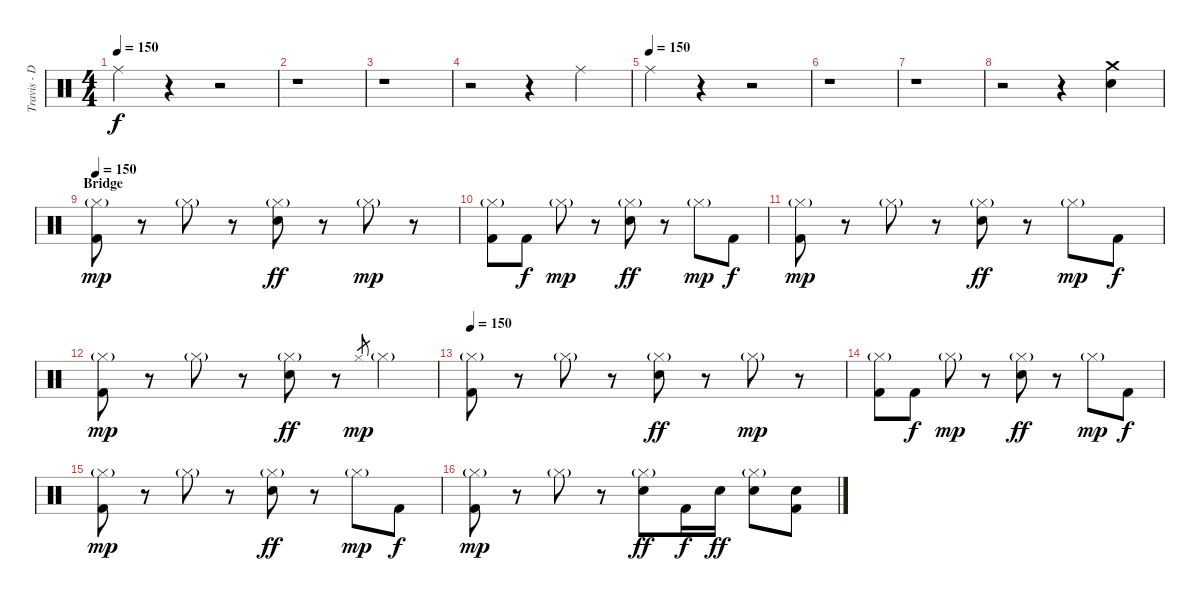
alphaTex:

\track ("Travis - Drums" "Travis - D") {instrument percussion}
\staff {score}
\articulation defaults
\ts (4 4)
\tempo 150
\clef neutral
\ks c "Ride (middle)".4{dy f}
r.4 r.2 |
r.1 |
r.1 |
r.2 r.4 "Ride (middle)".4 |
\tempo (150)
"Ride (middle)".4 r.4 r.2 |
r.1 |
r.1 |
r.2 r.4 ("Crash medium (hit)" "Electric Snare (hit)").4 |
\section ("" "Bridge")
\tempo 150
("Hi-Hat (closed)"{g} "Kick (hit) 2").8{dy mp} r.8 "Hi-Hat (closed)"{g}.8 r.8 ("Hi-Hat (closed)"{g} "Electric Snare (hit)").8{dy ff} r.8 "Hi-Hat (closed)"{g}.8{dy mp} r.8 |
("Hi-Hat (closed)"{g} "Kick (hit) 2").8 "Kick (hit) 2".8{dy f} "Hi-Hat (closed)"{g}.8{dy mp} r.8 ("Hi-Hat (closed)"{g} "Electric Snare (hit)").8{dy ff} r.8 "Hi-Hat (closed)"{g}.8{dy mp} "Kick (hit) 2".8{dy f} |
("Hi-Hat (closed)"{g} "Kick (hit) 2").8{dy mp} r.8 "Hi-Hat (closed)"{g}.8 r.8 ("Hi-Hat (closed)"{g} "Electric Snare (hit)").8{dy ff} r.8 "Hi-Hat (closed)"{g}.8{dy mp} "Kick (hit) 2".8{dy f} |
("Hi-Hat (closed)"{g} "Kick (hit) 2").8{dy mp} r.8 "Hi-Hat (closed)"{g}.8 r.8 ("Hi-Hat (closed)"{g} "Electric Snare (hit)").8{dy ff} r.8 "Hi-Hat (closed)".8{gr dy mp} "Hi-Hat (closed)"{g}.4 |
\tempo 150
("Hi-Hat (closed)"{g} "Kick (hit) 2").8 r.8 "Hi-Hat (closed)"{g}.8 r.8 ("Hi-Hat (closed)"{g} "Electric Snare (hit)").8{dy ff} r.8 "Hi-Hat (closed)"{g}.8{dy mp} r.8 |
("Hi-Hat (closed)"{g} "Kick (hit) 2").8 "Kick (hit) 2".8{dy f} "Hi-Hat (closed)"{g}.8{dy mp} r.8 ("Hi-Hat (closed)"{g} "Electric Snare (hit)").8{dy ff} r.8 "Hi-Hat (closed)"{g}.8{dy mp} "Kick (hit) 2".8{dy f} |
("Hi-Hat (closed)"{g} "Kick (hit) 2").8{dy mp} r.8 "Hi-Hat (closed)"{g}.8 r.8 ("Hi-Hat (closed)"{g} "Electric Snare (hit)").8{dy ff} r.8 "Hi-Hat (closed)"{g}.8{dy mp} "Kick (hit) 2".8{dy f} |
("Hi-Hat (closed)"{g} "Kick (hit) 2").8{dy mp} r.8 "Hi-Hat (closed)"{g}.8 r.8 ("Hi-Hat (closed)"{g} "Electric Snare (hit)").8{dy ff} "Kick (hit) 2".16{dy f} "Electric Snare (hit)".16{dy ff} ("Hi-Hat (closed)"{g} "Electric Snare (hit)").8 ("Electric Snare (hit)" "Kick (hit) 2").8
